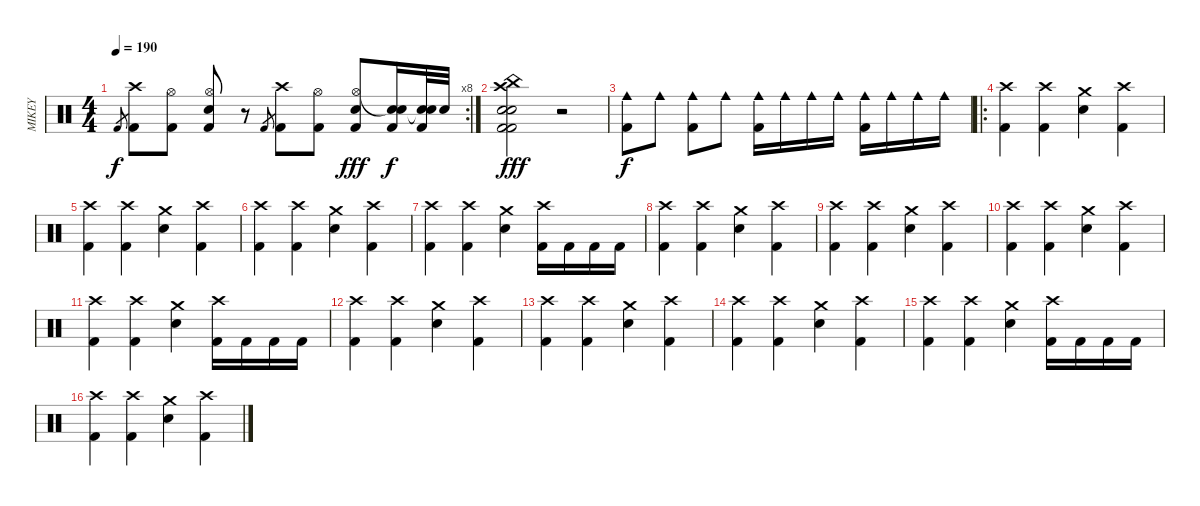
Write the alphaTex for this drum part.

\track ("MIKEY" "MIKEY") {instrument percussion}
\staff {score}
\articulation defaults
\rc 8
\ts (4 4)
\tempo 190
\clef neutral
\ks c "Kick (hit) 2".8{gr dy f}
("Crash high (hit)" "Kick (hit) 2").8 ("Hi-Hat (open)" "Kick (hit) 2").8 ("Hi-Hat (open)" "Electric Snare (hit)" "Kick (hit) 2").8 r.8 "Kick (hit) 2".8{gr} ("Crash high (hit)" "Kick (hit) 2").8 ("Hi-Hat (open)" "Kick (hit) 2").8 ("Hi-Hat (open)" "Electric Snare (hit)" "Kick (hit) 2").8{dy fff} ("Snare (hit)"{t} "Electric Snare (hit)" "Kick (hit) 2").16{dy f} ("Snare (hit)"{t} "Electric Snare (hit)" "Kick (hit) 2").32 "Electric Snare (hit)".32 |
("Snare (hit) 2" "Kick (hit) 2" "Electric Snare (hit)" "Kick (hit) 2" "China (hit)" "Crash high (hit)").2{dy fff} r.2 |
("Cowbell medium (hit)" "Kick (hit) 2").8{dy f} "Cowbell medium (hit)".8 ("Cowbell medium (hit)" "Kick (hit) 2").8 "Cowbell medium (hit)".8 ("Cowbell medium (hit)" "Kick (hit) 2").16 "Cowbell medium (hit)".16 "Cowbell medium (hit)".16 "Cowbell medium (hit)".16 ("Cowbell medium (hit)" "Kick (hit) 2").16 "Cowbell medium (hit)".16 "Cowbell medium (hit)".16 "Cowbell medium (hit)".16 |
\ro
("Crash high (hit)" "Kick (hit) 2").4 ("Crash high (hit)" "Kick (hit) 2").4 ("Crash medium (hit)" "Snare (hit) 2").4 ("Crash high (hit)" "Kick (hit) 2").4 |
("Crash high (hit)" "Kick (hit) 2").4 ("Crash high (hit)" "Kick (hit) 2").4 ("Crash medium (hit)" "Snare (hit) 2").4 ("Crash high (hit)" "Kick (hit) 2").4 |
("Crash high (hit)" "Kick (hit) 2").4 ("Crash high (hit)" "Kick (hit) 2").4 ("Crash medium (hit)" "Snare (hit) 2").4 ("Crash high (hit)" "Kick (hit) 2").4 |
("Crash high (hit)" "Kick (hit) 2").4 ("Crash high (hit)" "Kick (hit) 2").4 ("Crash medium (hit)" "Snare (hit) 2").4 ("Crash high (hit)" "Kick (hit) 2").16 "Kick (hit) 2".16 "Kick (hit) 2".16 "Kick (hit) 2".16 |
("Crash high (hit)" "Kick (hit) 2").4 ("Crash high (hit)" "Kick (hit) 2").4 ("Crash medium (hit)" "Snare (hit) 2").4 ("Crash high (hit)" "Kick (hit) 2").4 |
("Crash high (hit)" "Kick (hit) 2").4 ("Crash high (hit)" "Kick (hit) 2").4 ("Crash medium (hit)" "Snare (hit) 2").4 ("Crash high (hit)" "Kick (hit) 2").4 |
("Crash high (hit)" "Kick (hit) 2").4 ("Crash high (hit)" "Kick (hit) 2").4 ("Crash medium (hit)" "Snare (hit) 2").4 ("Crash high (hit)" "Kick (hit) 2").4 |
("Crash high (hit)" "Kick (hit) 2").4 ("Crash high (hit)" "Kick (hit) 2").4 ("Crash medium (hit)" "Snare (hit) 2").4 ("Crash high (hit)" "Kick (hit) 2").16 "Kick (hit) 2".16 "Kick (hit) 2".16 "Kick (hit) 2".16 |
("Crash high (hit)" "Kick (hit) 2").4 ("Crash high (hit)" "Kick (hit) 2").4 ("Crash medium (hit)" "Snare (hit) 2").4 ("Crash high (hit)" "Kick (hit) 2").4 |
("Crash high (hit)" "Kick (hit) 2").4 ("Crash high (hit)" "Kick (hit) 2").4 ("Crash medium (hit)" "Snare (hit) 2").4 ("Crash high (hit)" "Kick (hit) 2").4 |
("Crash high (hit)" "Kick (hit) 2").4 ("Crash high (hit)" "Kick (hit) 2").4 ("Crash medium (hit)" "Snare (hit) 2").4 ("Crash high (hit)" "Kick (hit) 2").4 |
("Crash high (hit)" "Kick (hit) 2").4 ("Crash high (hit)" "Kick (hit) 2").4 ("Crash medium (hit)" "Snare (hit) 2").4 ("Crash high (hit)" "Kick (hit) 2").16 "Kick (hit) 2".16 "Kick (hit) 2".16 "Kick (hit) 2".16 |
("Crash high (hit)" "Kick (hit) 2").4 ("Crash high (hit)" "Kick (hit) 2").4 ("Crash medium (hit)" "Snare (hit) 2").4 ("Crash high (hit)" "Kick (hit) 2").4
